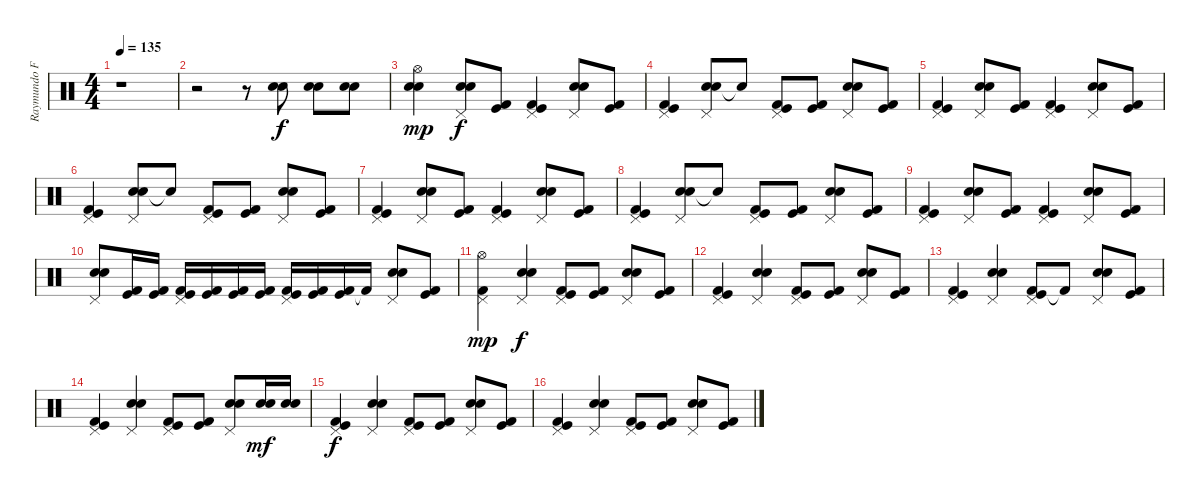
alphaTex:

\track ("Raymundo Fajardo" "Raymundo F") {instrument percussion}
\staff {score}
\articulation defaults
\ts (4 4)
\tempo 135
\clef neutral
\ks c
r.1{dy f} |
r.2 r.8 ("Electric Snare (hit)" "Snare (hit) 2").8 ("Electric Snare (hit)" "Snare (hit) 2").8 ("Electric Snare (hit)" "Snare (hit) 2").8 |
("Electric Snare (hit)" "Hi-Hat (open)" "Snare (hit) 2").4{dy mp} ("Electric Snare (hit)" "Snare (hit) 2" "Pedal Hi-Hat (hit)").8{dy f} ("Kick (hit) 2" "Kick (hit)").8 ("Kick (hit) 2" "Kick (hit)" "Pedal Hi-Hat (hit)").4 ("Electric Snare (hit)" "Snare (hit) 2" "Pedal Hi-Hat (hit)").8 ("Kick (hit) 2" "Kick (hit)").8 |
("Kick (hit) 2" "Kick (hit)" "Pedal Hi-Hat (hit)").4 ("Electric Snare (hit)" "Snare (hit) 2" "Pedal Hi-Hat (hit)").8 "Snare (hit) 2"{t}.8 ("Kick (hit) 2" "Kick (hit)" "Pedal Hi-Hat (hit)").8 ("Kick (hit) 2" "Kick (hit)").8 ("Electric Snare (hit)" "Snare (hit) 2" "Pedal Hi-Hat (hit)").8 ("Kick (hit) 2" "Kick (hit)").8 |
("Kick (hit) 2" "Kick (hit)" "Pedal Hi-Hat (hit)").4 ("Electric Snare (hit)" "Snare (hit) 2" "Pedal Hi-Hat (hit)").8 ("Kick (hit) 2" "Kick (hit)").8 ("Kick (hit) 2" "Kick (hit)" "Pedal Hi-Hat (hit)").4 ("Electric Snare (hit)" "Snare (hit) 2" "Pedal Hi-Hat (hit)").8 ("Kick (hit) 2" "Kick (hit)").8 |
("Kick (hit) 2" "Kick (hit)" "Pedal Hi-Hat (hit)").4 ("Electric Snare (hit)" "Snare (hit) 2" "Pedal Hi-Hat (hit)").8 "Snare (hit) 2"{t}.8 ("Kick (hit) 2" "Kick (hit)" "Pedal Hi-Hat (hit)").8 ("Kick (hit) 2" "Kick (hit)").8 ("Electric Snare (hit)" "Snare (hit) 2" "Pedal Hi-Hat (hit)").8 ("Kick (hit) 2" "Kick (hit)").8 |
("Kick (hit) 2" "Kick (hit)" "Pedal Hi-Hat (hit)").4 ("Electric Snare (hit)" "Snare (hit) 2" "Pedal Hi-Hat (hit)").8 ("Kick (hit) 2" "Kick (hit)").8 ("Kick (hit) 2" "Kick (hit)" "Pedal Hi-Hat (hit)").4 ("Electric Snare (hit)" "Snare (hit) 2" "Pedal Hi-Hat (hit)").8 ("Kick (hit) 2" "Kick (hit)").8 |
("Kick (hit) 2" "Kick (hit)" "Pedal Hi-Hat (hit)").4 ("Electric Snare (hit)" "Snare (hit) 2" "Pedal Hi-Hat (hit)").8 "Snare (hit) 2"{t}.8 ("Kick (hit) 2" "Kick (hit)" "Pedal Hi-Hat (hit)").8 ("Kick (hit) 2" "Kick (hit)").8 ("Electric Snare (hit)" "Snare (hit) 2" "Pedal Hi-Hat (hit)").8 ("Kick (hit) 2" "Kick (hit)").8 |
("Kick (hit) 2" "Kick (hit)" "Pedal Hi-Hat (hit)").4 ("Electric Snare (hit)" "Snare (hit) 2" "Pedal Hi-Hat (hit)").8 ("Kick (hit) 2" "Kick (hit)").8 ("Kick (hit) 2" "Kick (hit)" "Pedal Hi-Hat (hit)").4 ("Electric Snare (hit)" "Snare (hit) 2" "Pedal Hi-Hat (hit)").8 ("Kick (hit) 2" "Kick (hit)").8 |
("Electric Snare (hit)" "Snare (hit) 2" "Pedal Hi-Hat (hit)").8 ("Kick (hit) 2" "Kick (hit)").16 ("Kick (hit) 2" "Kick (hit)").16 ("Kick (hit) 2" "Kick (hit)" "Pedal Hi-Hat (hit)").16 ("Kick (hit) 2" "Kick (hit)").16 ("Kick (hit) 2" "Kick (hit)").16 ("Kick (hit) 2" "Kick (hit)").16 ("Kick (hit) 2" "Kick (hit)" "Pedal Hi-Hat (hit)").16 ("Kick (hit) 2" "Kick (hit)").16 ("Kick (hit) 2" "Kick (hit)").16 "Kick (hit) 2"{t}.16 ("Electric Snare (hit)" "Snare (hit) 2" "Pedal Hi-Hat (hit)").8 ("Kick (hit) 2" "Kick (hit)").8 |
("Kick (hit) 2" "Hi-Hat (open)" "Pedal Hi-Hat (hit)").4{dy mp} ("Electric Snare (hit)" "Snare (hit) 2" "Pedal Hi-Hat (hit)").4{dy f} ("Kick (hit) 2" "Kick (hit)" "Pedal Hi-Hat (hit)").8 ("Kick (hit) 2" "Kick (hit)").8 ("Electric Snare (hit)" "Snare (hit) 2" "Pedal Hi-Hat (hit)").8 ("Kick (hit) 2" "Kick (hit)").8 |
("Kick (hit) 2" "Kick (hit)" "Pedal Hi-Hat (hit)").4 ("Electric Snare (hit)" "Snare (hit) 2" "Pedal Hi-Hat (hit)").4 ("Kick (hit) 2" "Kick (hit)" "Pedal Hi-Hat (hit)").8 ("Kick (hit) 2" "Kick (hit)").8 ("Electric Snare (hit)" "Snare (hit) 2" "Pedal Hi-Hat (hit)").8 ("Kick (hit) 2" "Kick (hit)").8 |
("Kick (hit) 2" "Kick (hit)" "Pedal Hi-Hat (hit)").4 ("Electric Snare (hit)" "Snare (hit) 2" "Pedal Hi-Hat (hit)").4 ("Kick (hit) 2" "Kick (hit)" "Pedal Hi-Hat (hit)").8 "Kick (hit) 2"{t}.8 ("Electric Snare (hit)" "Snare (hit) 2" "Pedal Hi-Hat (hit)").8 ("Kick (hit) 2" "Kick (hit)").8 |
("Kick (hit) 2" "Kick (hit)" "Pedal Hi-Hat (hit)").4 ("Electric Snare (hit)" "Snare (hit) 2" "Pedal Hi-Hat (hit)").4 ("Kick (hit) 2" "Kick (hit)" "Pedal Hi-Hat (hit)").8 ("Kick (hit) 2" "Kick (hit)").8 ("Electric Snare (hit)" "Snare (hit) 2" "Pedal Hi-Hat (hit)").8 ("Electric Snare (hit)" "Snare (hit) 2").16{dy mf} ("Electric Snare (hit)" "Snare (hit) 2").16 |
("Kick (hit) 2" "Kick (hit)" "Pedal Hi-Hat (hit)").4{dy f} ("Electric Snare (hit)" "Snare (hit) 2" "Pedal Hi-Hat (hit)").4 ("Kick (hit) 2" "Kick (hit)" "Pedal Hi-Hat (hit)").8 ("Kick (hit) 2" "Kick (hit)").8 ("Electric Snare (hit)" "Snare (hit) 2" "Pedal Hi-Hat (hit)").8 ("Kick (hit) 2" "Kick (hit)").8 |
("Kick (hit) 2" "Kick (hit)" "Pedal Hi-Hat (hit)").4 ("Electric Snare (hit)" "Snare (hit) 2" "Pedal Hi-Hat (hit)").4 ("Kick (hit) 2" "Kick (hit)" "Pedal Hi-Hat (hit)").8 ("Kick (hit) 2" "Kick (hit)").8 ("Electric Snare (hit)" "Snare (hit) 2" "Pedal Hi-Hat (hit)").8 ("Kick (hit) 2" "Kick (hit)").8
